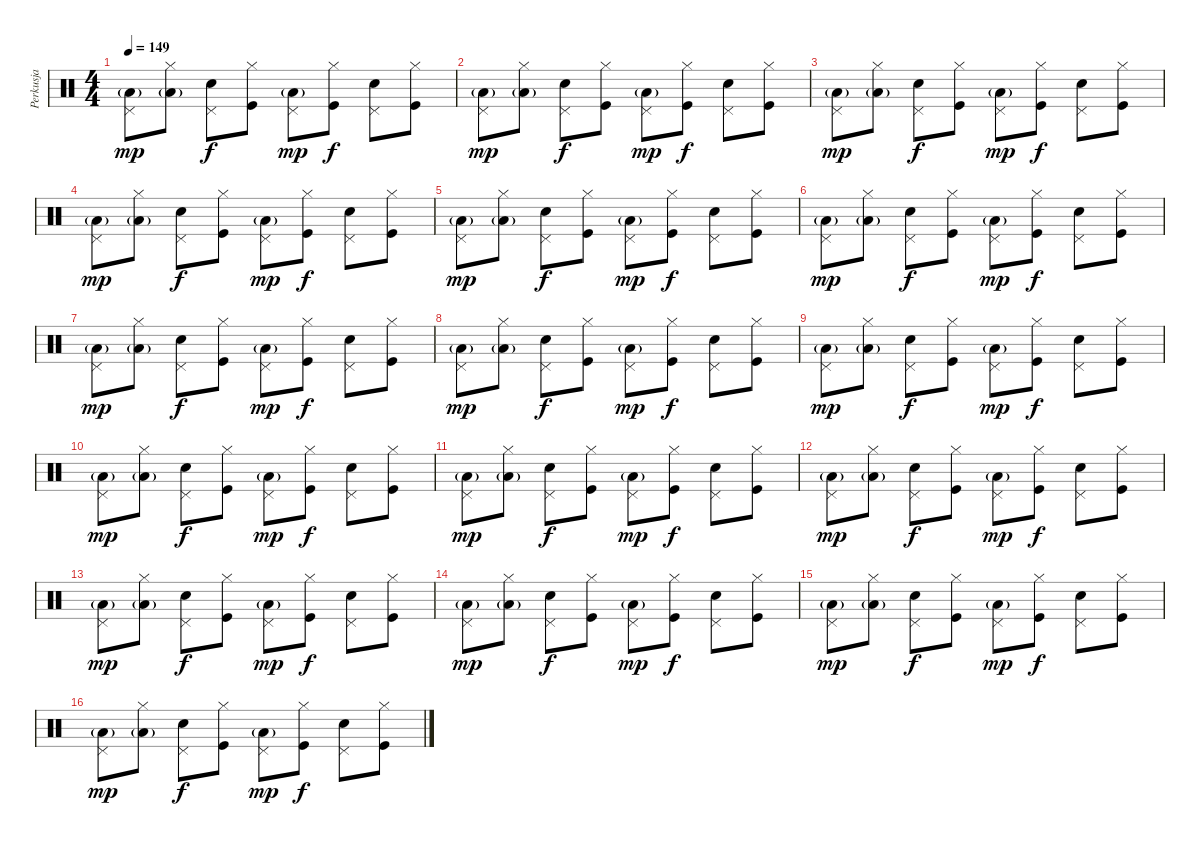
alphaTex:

\track ("Perkusja" "Perkusja") {instrument percussion}
\staff {score}
\articulation defaults
\ts (4 4)
\tempo 149
\clef neutral
\ks c
("Low Tom (hit)"{g} "Pedal Hi-Hat (hit)").8{dy mp} ("Low Tom (hit)"{g} "Hi-Hat (closed)").8 ("Electric Snare (hit)" "Pedal Hi-Hat (hit)").8{dy f} ("Kick (hit)" "Hi-Hat (closed)").8 ("Low Tom (hit)"{g} "Pedal Hi-Hat (hit)").8{dy mp} ("Kick (hit)" "Hi-Hat (closed)").8{dy f} ("Electric Snare (hit)" "Pedal Hi-Hat (hit)").8 ("Kick (hit)" "Hi-Hat (closed)").8 |
("Low Tom (hit)"{g} "Pedal Hi-Hat (hit)").8{dy mp} ("Low Tom (hit)"{g} "Hi-Hat (closed)").8 ("Electric Snare (hit)" "Pedal Hi-Hat (hit)").8{dy f} ("Kick (hit)" "Hi-Hat (closed)").8 ("Low Tom (hit)"{g} "Pedal Hi-Hat (hit)").8{dy mp} ("Kick (hit)" "Hi-Hat (closed)").8{dy f} ("Electric Snare (hit)" "Pedal Hi-Hat (hit)").8 ("Kick (hit)" "Hi-Hat (closed)").8 |
("Low Tom (hit)"{g} "Pedal Hi-Hat (hit)").8{dy mp} ("Low Tom (hit)"{g} "Hi-Hat (closed)").8 ("Electric Snare (hit)" "Pedal Hi-Hat (hit)").8{dy f} ("Kick (hit)" "Hi-Hat (closed)").8 ("Low Tom (hit)"{g} "Pedal Hi-Hat (hit)").8{dy mp} ("Kick (hit)" "Hi-Hat (closed)").8{dy f} ("Electric Snare (hit)" "Pedal Hi-Hat (hit)").8 ("Kick (hit)" "Hi-Hat (closed)").8 |
("Low Tom (hit)"{g} "Pedal Hi-Hat (hit)").8{dy mp} ("Low Tom (hit)"{g} "Hi-Hat (closed)").8 ("Electric Snare (hit)" "Pedal Hi-Hat (hit)").8{dy f} ("Kick (hit)" "Hi-Hat (closed)").8 ("Low Tom (hit)"{g} "Pedal Hi-Hat (hit)").8{dy mp} ("Kick (hit)" "Hi-Hat (closed)").8{dy f} ("Electric Snare (hit)" "Pedal Hi-Hat (hit)").8 ("Kick (hit)" "Hi-Hat (closed)").8 |
("Low Tom (hit)"{g} "Pedal Hi-Hat (hit)").8{dy mp} ("Low Tom (hit)"{g} "Hi-Hat (closed)").8 ("Electric Snare (hit)" "Pedal Hi-Hat (hit)").8{dy f} ("Kick (hit)" "Hi-Hat (closed)").8 ("Low Tom (hit)"{g} "Pedal Hi-Hat (hit)").8{dy mp} ("Kick (hit)" "Hi-Hat (closed)").8{dy f} ("Electric Snare (hit)" "Pedal Hi-Hat (hit)").8 ("Kick (hit)" "Hi-Hat (closed)").8 |
("Low Tom (hit)"{g} "Pedal Hi-Hat (hit)").8{dy mp} ("Low Tom (hit)"{g} "Hi-Hat (closed)").8 ("Electric Snare (hit)" "Pedal Hi-Hat (hit)").8{dy f} ("Kick (hit)" "Hi-Hat (closed)").8 ("Low Tom (hit)"{g} "Pedal Hi-Hat (hit)").8{dy mp} ("Kick (hit)" "Hi-Hat (closed)").8{dy f} ("Electric Snare (hit)" "Pedal Hi-Hat (hit)").8 ("Kick (hit)" "Hi-Hat (closed)").8 |
("Low Tom (hit)"{g} "Pedal Hi-Hat (hit)").8{dy mp} ("Low Tom (hit)"{g} "Hi-Hat (closed)").8 ("Electric Snare (hit)" "Pedal Hi-Hat (hit)").8{dy f} ("Kick (hit)" "Hi-Hat (closed)").8 ("Low Tom (hit)"{g} "Pedal Hi-Hat (hit)").8{dy mp} ("Kick (hit)" "Hi-Hat (closed)").8{dy f} ("Electric Snare (hit)" "Pedal Hi-Hat (hit)").8 ("Kick (hit)" "Hi-Hat (closed)").8 |
("Low Tom (hit)"{g} "Pedal Hi-Hat (hit)").8{dy mp} ("Low Tom (hit)"{g} "Hi-Hat (closed)").8 ("Electric Snare (hit)" "Pedal Hi-Hat (hit)").8{dy f} ("Kick (hit)" "Hi-Hat (closed)").8 ("Low Tom (hit)"{g} "Pedal Hi-Hat (hit)").8{dy mp} ("Kick (hit)" "Hi-Hat (closed)").8{dy f} ("Electric Snare (hit)" "Pedal Hi-Hat (hit)").8 ("Kick (hit)" "Hi-Hat (closed)").8 |
("Low Tom (hit)"{g} "Pedal Hi-Hat (hit)").8{dy mp} ("Low Tom (hit)"{g} "Hi-Hat (closed)").8 ("Electric Snare (hit)" "Pedal Hi-Hat (hit)").8{dy f} ("Kick (hit)" "Hi-Hat (closed)").8 ("Low Tom (hit)"{g} "Pedal Hi-Hat (hit)").8{dy mp} ("Kick (hit)" "Hi-Hat (closed)").8{dy f} ("Electric Snare (hit)" "Pedal Hi-Hat (hit)").8 ("Kick (hit)" "Hi-Hat (closed)").8 |
("Low Tom (hit)"{g} "Pedal Hi-Hat (hit)").8{dy mp} ("Low Tom (hit)"{g} "Hi-Hat (closed)").8 ("Electric Snare (hit)" "Pedal Hi-Hat (hit)").8{dy f} ("Kick (hit)" "Hi-Hat (closed)").8 ("Low Tom (hit)"{g} "Pedal Hi-Hat (hit)").8{dy mp} ("Kick (hit)" "Hi-Hat (closed)").8{dy f} ("Electric Snare (hit)" "Pedal Hi-Hat (hit)").8 ("Kick (hit)" "Hi-Hat (closed)").8 |
("Low Tom (hit)"{g} "Pedal Hi-Hat (hit)").8{dy mp} ("Low Tom (hit)"{g} "Hi-Hat (closed)").8 ("Electric Snare (hit)" "Pedal Hi-Hat (hit)").8{dy f} ("Kick (hit)" "Hi-Hat (closed)").8 ("Low Tom (hit)"{g} "Pedal Hi-Hat (hit)").8{dy mp} ("Kick (hit)" "Hi-Hat (closed)").8{dy f} ("Electric Snare (hit)" "Pedal Hi-Hat (hit)").8 ("Kick (hit)" "Hi-Hat (closed)").8 |
("Low Tom (hit)"{g} "Pedal Hi-Hat (hit)").8{dy mp} ("Low Tom (hit)"{g} "Hi-Hat (closed)").8 ("Electric Snare (hit)" "Pedal Hi-Hat (hit)").8{dy f} ("Kick (hit)" "Hi-Hat (closed)").8 ("Low Tom (hit)"{g} "Pedal Hi-Hat (hit)").8{dy mp} ("Kick (hit)" "Hi-Hat (closed)").8{dy f} ("Electric Snare (hit)" "Pedal Hi-Hat (hit)").8 ("Kick (hit)" "Hi-Hat (closed)").8 |
("Low Tom (hit)"{g} "Pedal Hi-Hat (hit)").8{dy mp} ("Low Tom (hit)"{g} "Hi-Hat (closed)").8 ("Electric Snare (hit)" "Pedal Hi-Hat (hit)").8{dy f} ("Kick (hit)" "Hi-Hat (closed)").8 ("Low Tom (hit)"{g} "Pedal Hi-Hat (hit)").8{dy mp} ("Kick (hit)" "Hi-Hat (closed)").8{dy f} ("Electric Snare (hit)" "Pedal Hi-Hat (hit)").8 ("Kick (hit)" "Hi-Hat (closed)").8 |
("Low Tom (hit)"{g} "Pedal Hi-Hat (hit)").8{dy mp} ("Low Tom (hit)"{g} "Hi-Hat (closed)").8 ("Electric Snare (hit)" "Pedal Hi-Hat (hit)").8{dy f} ("Kick (hit)" "Hi-Hat (closed)").8 ("Low Tom (hit)"{g} "Pedal Hi-Hat (hit)").8{dy mp} ("Kick (hit)" "Hi-Hat (closed)").8{dy f} ("Electric Snare (hit)" "Pedal Hi-Hat (hit)").8 ("Kick (hit)" "Hi-Hat (closed)").8 |
("Low Tom (hit)"{g} "Pedal Hi-Hat (hit)").8{dy mp} ("Low Tom (hit)"{g} "Hi-Hat (closed)").8 ("Electric Snare (hit)" "Pedal Hi-Hat (hit)").8{dy f} ("Kick (hit)" "Hi-Hat (closed)").8 ("Low Tom (hit)"{g} "Pedal Hi-Hat (hit)").8{dy mp} ("Kick (hit)" "Hi-Hat (closed)").8{dy f} ("Electric Snare (hit)" "Pedal Hi-Hat (hit)").8 ("Kick (hit)" "Hi-Hat (closed)").8 |
("Low Tom (hit)"{g} "Pedal Hi-Hat (hit)").8{dy mp} ("Low Tom (hit)"{g} "Hi-Hat (closed)").8 ("Electric Snare (hit)" "Pedal Hi-Hat (hit)").8{dy f} ("Kick (hit)" "Hi-Hat (closed)").8 ("Low Tom (hit)"{g} "Pedal Hi-Hat (hit)").8{dy mp} ("Kick (hit)" "Hi-Hat (closed)").8{dy f} ("Electric Snare (hit)" "Pedal Hi-Hat (hit)").8 ("Kick (hit)" "Hi-Hat (closed)").8
